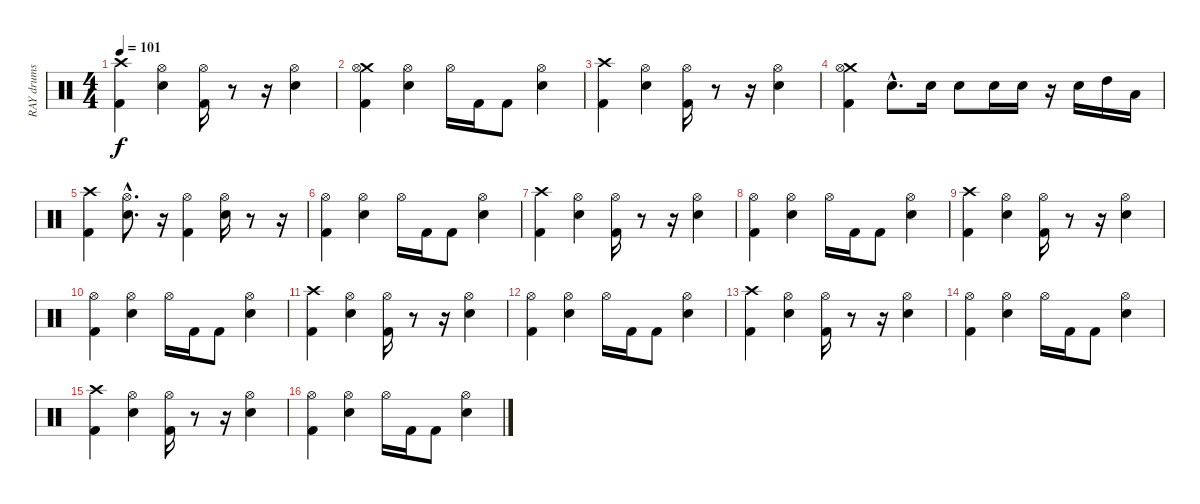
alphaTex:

\track ("RAY drums" "RAY drums") {instrument percussion}
\staff {score}
\articulation defaults
\ts (4 4)
\tempo 101
\clef neutral
\ks c
("Crash high (hit)" "Kick (hit) 2").4{dy f} ("Hi-Hat (open)" "Electric Snare (hit)").4 ("Hi-Hat (open)" "Kick (hit) 2").16 r.8 r.16 ("Hi-Hat (open)" "Electric Snare (hit)").4 |
("Crash medium (hit)" "Hi-Hat (open)" "Kick (hit) 2").4 ("Hi-Hat (open)" "Electric Snare (hit)").4 "Hi-Hat (open)".16 "Kick (hit) 2".16 "Kick (hit) 2".8 ("Hi-Hat (open)" "Electric Snare (hit)").4 |
("Kick (hit) 2" "Crash high (hit)").4 ("Electric Snare (hit)" "Hi-Hat (open)").4 ("Kick (hit) 2" "Hi-Hat (open)").16 r.8 r.16 ("Electric Snare (hit)" "Hi-Hat (open)").4 |
("Crash medium (hit)" "Kick (hit) 2" "Hi-Hat (open)").4 "Electric Snare (hit)"{hac}.8{d} "Electric Snare (hit)".16 "Electric Snare (hit)".8 "Electric Snare (hit)".16 "Electric Snare (hit)".16 r.16 "Electric Snare (hit)".16 "High Tom (hit)".16 "Low Tom (hit)".16 |
("Crash high (hit)" "Kick (hit) 2").4 ("Hi-Hat (open)"{hac} "Electric Snare (hit)"{hac}).8{d} r.16 ("Hi-Hat (open)" "Kick (hit) 2").4 ("Hi-Hat (open)" "Electric Snare (hit)").16 r.8 r.16 |
("Hi-Hat (open)" "Kick (hit) 2").4 ("Hi-Hat (open)" "Electric Snare (hit)").4 "Hi-Hat (open)".16 "Kick (hit) 2".16 "Kick (hit) 2".8 ("Hi-Hat (open)" "Electric Snare (hit)").4 |
("Kick (hit) 2" "Crash high (hit)").4 ("Electric Snare (hit)" "Hi-Hat (open)").4 ("Kick (hit) 2" "Hi-Hat (open)").16 r.8 r.16 ("Electric Snare (hit)" "Hi-Hat (open)").4 |
("Kick (hit) 2" "Hi-Hat (open)").4 ("Electric Snare (hit)" "Hi-Hat (open)").4 "Hi-Hat (open)".16 "Kick (hit) 2".16 "Kick (hit) 2".8 ("Electric Snare (hit)" "Hi-Hat (open)").4 |
("Crash high (hit)" "Kick (hit) 2").4 ("Hi-Hat (open)" "Electric Snare (hit)").4 ("Hi-Hat (open)" "Kick (hit) 2").16 r.8 r.16 ("Hi-Hat (open)" "Electric Snare (hit)").4 |
("Hi-Hat (open)" "Kick (hit) 2").4 ("Hi-Hat (open)" "Electric Snare (hit)").4 "Hi-Hat (open)".16 "Kick (hit) 2".16 "Kick (hit) 2".8 ("Hi-Hat (open)" "Electric Snare (hit)").4 |
("Kick (hit) 2" "Crash high (hit)").4 ("Electric Snare (hit)" "Hi-Hat (open)").4 ("Kick (hit) 2" "Hi-Hat (open)").16 r.8 r.16 ("Electric Snare (hit)" "Hi-Hat (open)").4 |
("Kick (hit) 2" "Hi-Hat (open)").4 ("Electric Snare (hit)" "Hi-Hat (open)").4 "Hi-Hat (open)".16 "Kick (hit) 2".16 "Kick (hit) 2".8 ("Electric Snare (hit)" "Hi-Hat (open)").4 |
("Crash high (hit)" "Kick (hit) 2").4 ("Hi-Hat (open)" "Electric Snare (hit)").4 ("Hi-Hat (open)" "Kick (hit) 2").16 r.8 r.16 ("Hi-Hat (open)" "Electric Snare (hit)").4 |
("Hi-Hat (open)" "Kick (hit) 2").4 ("Hi-Hat (open)" "Electric Snare (hit)").4 "Hi-Hat (open)".16 "Kick (hit) 2".16 "Kick (hit) 2".8 ("Hi-Hat (open)" "Electric Snare (hit)").4 |
("Kick (hit) 2" "Crash high (hit)").4 ("Electric Snare (hit)" "Hi-Hat (open)").4 ("Kick (hit) 2" "Hi-Hat (open)").16 r.8 r.16 ("Electric Snare (hit)" "Hi-Hat (open)").4 |
("Kick (hit) 2" "Hi-Hat (open)").4 ("Electric Snare (hit)" "Hi-Hat (open)").4 "Hi-Hat (open)".16 "Kick (hit) 2".16 "Kick (hit) 2".8 ("Electric Snare (hit)" "Hi-Hat (open)").4
